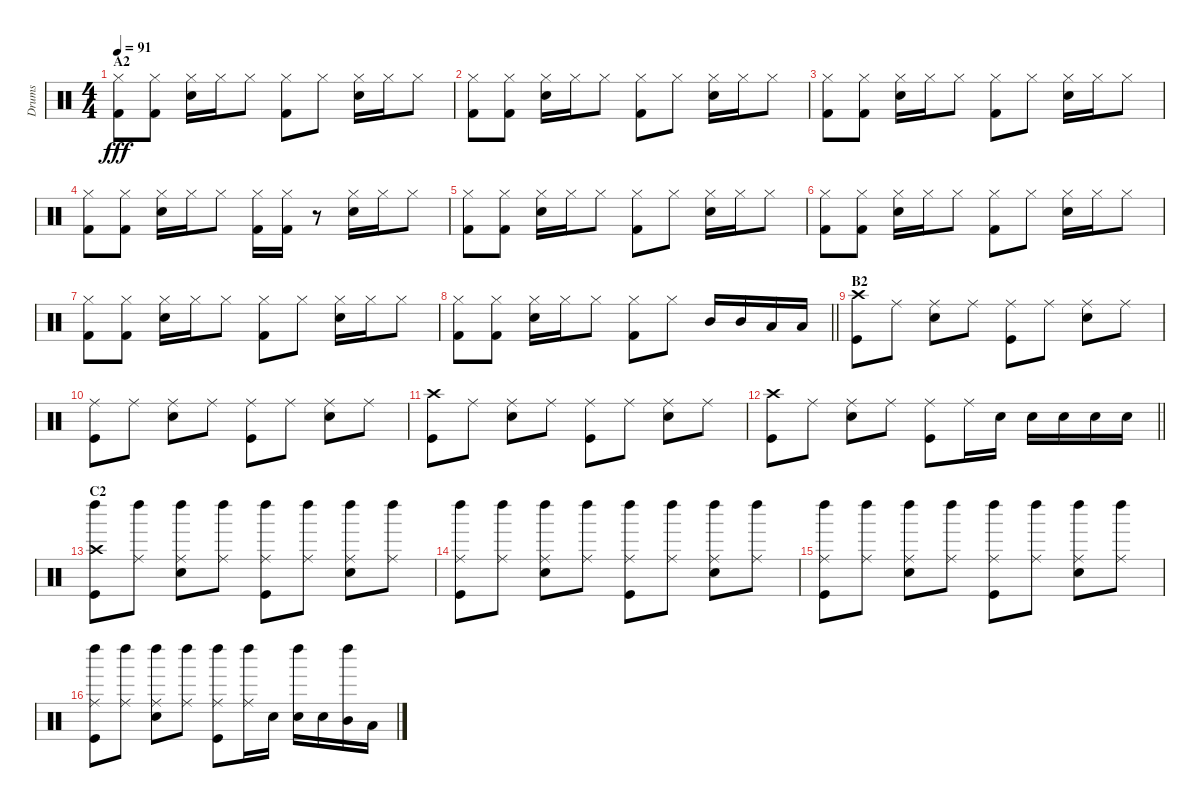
\track ("Drums" "Drums") {instrument percussion}
\staff {score}
\articulation defaults
\ts (4 4)
\section ("" "A2")
\tempo 91
\clef neutral
\ks c
("Hi-Hat (closed)" "Kick (hit) 2").8{dy fff} ("Hi-Hat (closed)" "Kick (hit) 2").8 ("Hi-Hat (closed)" "Snare (hit) 2").16 "Hi-Hat (closed)".16 "Hi-Hat (closed)".8 ("Hi-Hat (closed)" "Kick (hit) 2").8 "Hi-Hat (closed)".8 ("Hi-Hat (closed)" "Snare (hit) 2").16 "Hi-Hat (closed)".16 "Hi-Hat (closed)".8 |
("Hi-Hat (closed)" "Kick (hit) 2").8 ("Hi-Hat (closed)" "Kick (hit) 2").8 ("Hi-Hat (closed)" "Snare (hit) 2").16 "Hi-Hat (closed)".16 "Hi-Hat (closed)".8 ("Hi-Hat (closed)" "Kick (hit) 2").8 "Hi-Hat (closed)".8 ("Hi-Hat (closed)" "Snare (hit) 2").16 "Hi-Hat (closed)".16 "Hi-Hat (closed)".8 |
("Hi-Hat (closed)" "Kick (hit) 2").8 ("Hi-Hat (closed)" "Kick (hit) 2").8 ("Hi-Hat (closed)" "Snare (hit) 2").16 "Hi-Hat (closed)".16 "Hi-Hat (closed)".8 ("Hi-Hat (closed)" "Kick (hit) 2").8 "Hi-Hat (closed)".8 ("Hi-Hat (closed)" "Snare (hit) 2").16 "Hi-Hat (closed)".16 "Hi-Hat (closed)".8 |
("Hi-Hat (closed)" "Kick (hit) 2").8 ("Hi-Hat (closed)" "Kick (hit) 2").8 ("Hi-Hat (closed)" "Snare (hit) 2").16 "Hi-Hat (closed)".16 "Hi-Hat (closed)".8 ("Hi-Hat (closed)" "Kick (hit) 2").16 ("Hi-Hat (closed)" "Kick (hit) 2").16 r.8 ("Hi-Hat (closed)" "Snare (hit) 2").16 "Hi-Hat (closed)".16 "Hi-Hat (closed)".8 |
("Hi-Hat (closed)" "Kick (hit) 2").8 ("Hi-Hat (closed)" "Kick (hit) 2").8 ("Hi-Hat (closed)" "Snare (hit) 2").16 "Hi-Hat (closed)".16 "Hi-Hat (closed)".8 ("Hi-Hat (closed)" "Kick (hit) 2").8 "Hi-Hat (closed)".8 ("Hi-Hat (closed)" "Snare (hit) 2").16 "Hi-Hat (closed)".16 "Hi-Hat (closed)".8 |
("Hi-Hat (closed)" "Kick (hit) 2").8 ("Hi-Hat (closed)" "Kick (hit) 2").8 ("Hi-Hat (closed)" "Snare (hit) 2").16 "Hi-Hat (closed)".16 "Hi-Hat (closed)".8 ("Hi-Hat (closed)" "Kick (hit) 2").8 "Hi-Hat (closed)".8 ("Hi-Hat (closed)" "Snare (hit) 2").16 "Hi-Hat (closed)".16 "Hi-Hat (closed)".8 |
("Hi-Hat (closed)" "Kick (hit) 2").8 ("Hi-Hat (closed)" "Kick (hit) 2").8 ("Hi-Hat (closed)" "Snare (hit) 2").16 "Hi-Hat (closed)".16 "Hi-Hat (closed)".8 ("Hi-Hat (closed)" "Kick (hit) 2").8 "Hi-Hat (closed)".8 ("Hi-Hat (closed)" "Snare (hit) 2").16 "Hi-Hat (closed)".16 "Hi-Hat (closed)".8 |
\barLineRight lightlight
("Hi-Hat (closed)" "Kick (hit) 2").8 ("Hi-Hat (closed)" "Kick (hit) 2").8 ("Hi-Hat (closed)" "Snare (hit) 2").16 "Hi-Hat (closed)".16 "Hi-Hat (closed)".8 ("Hi-Hat (closed)" "Kick (hit) 2").8 "Hi-Hat (closed)".8 "Mid Tom (hit)".16 "Mid Tom (hit)".16 "Low Tom (hit)".16 "Low Tom (hit)".16 |
\section ("" "B2")
("Crash high (hit)" "Kick (hit)").8 "Ride (middle)".8 ("Ride (middle)" "Snare (hit) 2").8 "Ride (middle)".8 ("Ride (middle)" "Kick (hit)").8 "Ride (middle)".8 ("Ride (middle)" "Snare (hit) 2").8 "Ride (middle)".8 |
("Ride (middle)" "Kick (hit)").8 "Ride (middle)".8 ("Ride (middle)" "Snare (hit) 2").8 "Ride (middle)".8 ("Ride (middle)" "Kick (hit)").8 "Ride (middle)".8 ("Ride (middle)" "Snare (hit) 2").8 "Ride (middle)".8 |
("Crash high (hit)" "Kick (hit)").8 "Ride (middle)".8 ("Ride (middle)" "Snare (hit) 2").8 "Ride (middle)".8 ("Ride (middle)" "Kick (hit)").8 "Ride (middle)".8 ("Ride (middle)" "Snare (hit) 2").8 "Ride (middle)".8 |
\barLineRight lightlight
("Crash high (hit)" "Kick (hit)").8 "Ride (middle)".8 ("Ride (middle)" "Snare (hit) 2").8 "Ride (middle)".8 ("Ride (middle)" "Kick (hit)").8 "Ride (middle)".16 "Snare (hit) 2".16 "Snare (hit) 2".16 "Snare (hit) 2".16 "Snare (hit) 2".16 "Snare (hit) 2".16 |
\section ("" "C2")
("Left Maraca (hit)" "Crash high (hit)" "Kick (hit)").8 ("Left Maraca (hit)" "Ride (middle)").8 ("Left Maraca (hit)" "Ride (middle)" "Snare (hit) 2").8 ("Left Maraca (hit)" "Ride (middle)").8 ("Left Maraca (hit)" "Ride (middle)" "Kick (hit)").8 ("Left Maraca (hit)" "Ride (middle)").8 ("Left Maraca (hit)" "Ride (middle)" "Snare (hit) 2").8 ("Left Maraca (hit)" "Ride (middle)").8 |
("Left Maraca (hit)" "Ride (middle)" "Kick (hit)").8 ("Left Maraca (hit)" "Ride (middle)").8 ("Left Maraca (hit)" "Ride (middle)" "Snare (hit) 2").8 ("Left Maraca (hit)" "Ride (middle)").8 ("Left Maraca (hit)" "Ride (middle)" "Kick (hit)").8 ("Left Maraca (hit)" "Ride (middle)").8 ("Left Maraca (hit)" "Ride (middle)" "Snare (hit) 2").8 ("Left Maraca (hit)" "Ride (middle)").8 |
("Left Maraca (hit)" "Ride (middle)" "Kick (hit)").8 ("Left Maraca (hit)" "Ride (middle)").8 ("Left Maraca (hit)" "Ride (middle)" "Snare (hit) 2").8 ("Left Maraca (hit)" "Ride (middle)").8 ("Left Maraca (hit)" "Ride (middle)" "Kick (hit)").8 ("Left Maraca (hit)" "Ride (middle)").8 ("Left Maraca (hit)" "Ride (middle)" "Snare (hit) 2").8 ("Left Maraca (hit)" "Ride (middle)").8 |
("Left Maraca (hit)" "Ride (middle)" "Kick (hit)").8 ("Left Maraca (hit)" "Ride (middle)").8 ("Left Maraca (hit)" "Ride (middle)" "Snare (hit) 2").8 ("Left Maraca (hit)" "Ride (middle)").8 ("Left Maraca (hit)" "Ride (middle)" "Kick (hit)").8 ("Left Maraca (hit)" "Ride (middle)").16 "Snare (hit) 2".16 ("Left Maraca (hit)" "Snare (hit) 2").16 "Snare (hit) 2".16 ("Left Maraca (hit)" "Mid Tom (hit)").16 "Low Tom (hit)".16
